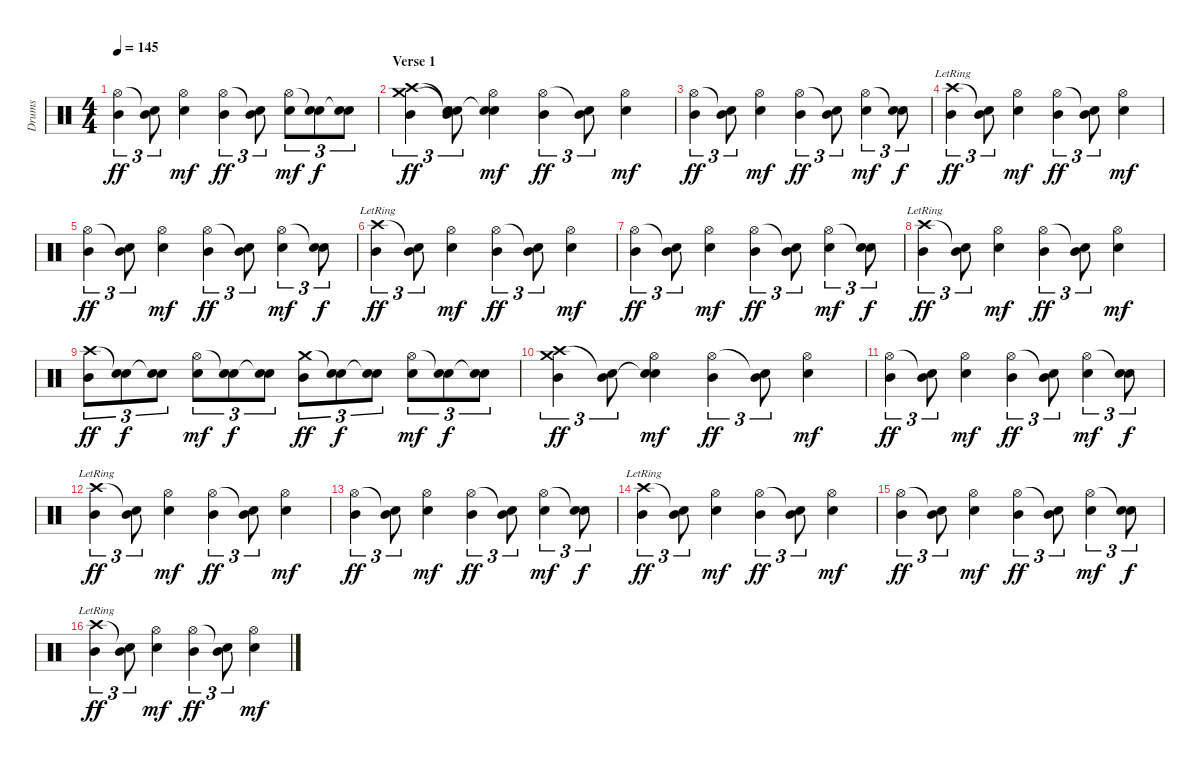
\track ("Drums" "Drums") {instrument percussion}
\staff {score}
\articulation defaults
\ts (4 4)
\tempo 145
\clef neutral
\ks c
("Hi-Hat (open)" "Mid Tom (hit)").4{tu (3 2) dy ff} ("Snare (hit)"{t} "Mid Tom (hit)").8{tu (3 2)} ("Hi-Hat (open)" "Electric Snare (hit)").4{dy mf} ("Hi-Hat (open)" "Mid Tom (hit)").4{tu (3 2) dy ff} ("Snare (hit)"{t} "Mid Tom (hit)").8{tu (3 2)} ("Hi-Hat (open)" "Electric Snare (hit)").8{tu (3 2) dy mf} ("Snare (hit)"{t} "Electric Snare (hit)").8{tu (3 2) dy f} ("Snare (hit)"{t} "Electric Snare (hit)").8{tu (3 2)} |
\section ("" "Verse 1")
("Crash high (hit)" "Crash medium (hit)" "Mid Tom (hit)").4{tu (3 2) dy ff} ("Snare (hit)"{t} "Snare (hit)"{t} "Mid Tom (hit)").8{tu (3 2)} ("Hi-Hat (open)" "Snare (hit)"{t} "Electric Snare (hit)").4{dy mf} ("Hi-Hat (open)" "Mid Tom (hit)").4{tu (3 2) dy ff} ("Snare (hit)"{t} "Mid Tom (hit)").8{tu (3 2)} ("Hi-Hat (open)" "Electric Snare (hit)").4{dy mf} |
("Hi-Hat (open)" "Mid Tom (hit)").4{tu (3 2) dy ff} ("Snare (hit)"{t} "Mid Tom (hit)").8{tu (3 2)} ("Hi-Hat (open)" "Electric Snare (hit)").4{dy mf} ("Hi-Hat (open)" "Mid Tom (hit)").4{tu (3 2) dy ff} ("Snare (hit)"{t} "Mid Tom (hit)").8{tu (3 2)} ("Hi-Hat (open)" "Electric Snare (hit)").4{tu (3 2) dy mf} ("Snare (hit)"{t} "Electric Snare (hit)").8{tu (3 2) dy f} |
("Crash high (hit)"{lr} "Mid Tom (hit)").4{tu (3 2) dy ff} ("Snare (hit)"{t} "Mid Tom (hit)").8{tu (3 2)} ("Hi-Hat (open)" "Electric Snare (hit)").4{dy mf} ("Hi-Hat (open)" "Mid Tom (hit)").4{tu (3 2) dy ff} ("Snare (hit)"{t} "Mid Tom (hit)").8{tu (3 2)} ("Hi-Hat (open)" "Electric Snare (hit)").4{dy mf} |
("Hi-Hat (open)" "Mid Tom (hit)").4{tu (3 2) dy ff} ("Snare (hit)"{t} "Mid Tom (hit)").8{tu (3 2)} ("Hi-Hat (open)" "Electric Snare (hit)").4{dy mf} ("Hi-Hat (open)" "Mid Tom (hit)").4{tu (3 2) dy ff} ("Snare (hit)"{t} "Mid Tom (hit)").8{tu (3 2)} ("Hi-Hat (open)" "Electric Snare (hit)").4{tu (3 2) dy mf} ("Snare (hit)"{t} "Electric Snare (hit)").8{tu (3 2) dy f} |
("Crash high (hit)"{lr} "Mid Tom (hit)").4{tu (3 2) dy ff} ("Snare (hit)"{t} "Mid Tom (hit)").8{tu (3 2)} ("Hi-Hat (open)" "Electric Snare (hit)").4{dy mf} ("Hi-Hat (open)" "Mid Tom (hit)").4{tu (3 2) dy ff} ("Snare (hit)"{t} "Mid Tom (hit)").8{tu (3 2)} ("Hi-Hat (open)" "Electric Snare (hit)").4{dy mf} |
("Hi-Hat (open)" "Mid Tom (hit)").4{tu (3 2) dy ff} ("Snare (hit)"{t} "Mid Tom (hit)").8{tu (3 2)} ("Hi-Hat (open)" "Electric Snare (hit)").4{dy mf} ("Hi-Hat (open)" "Mid Tom (hit)").4{tu (3 2) dy ff} ("Snare (hit)"{t} "Mid Tom (hit)").8{tu (3 2)} ("Hi-Hat (open)" "Electric Snare (hit)").4{tu (3 2) dy mf} ("Snare (hit)"{t} "Electric Snare (hit)").8{tu (3 2) dy f} |
("Crash high (hit)"{lr} "Mid Tom (hit)").4{tu (3 2) dy ff} ("Snare (hit)"{t} "Mid Tom (hit)").8{tu (3 2)} ("Hi-Hat (open)" "Electric Snare (hit)").4{dy mf} ("Hi-Hat (open)" "Mid Tom (hit)").4{tu (3 2) dy ff} ("Snare (hit)"{t} "Mid Tom (hit)").8{tu (3 2)} ("Hi-Hat (open)" "Electric Snare (hit)").4{dy mf} |
("Crash high (hit)" "Mid Tom (hit)").8{tu (3 2) dy ff} ("Snare (hit)"{t} "Electric Snare (hit)").8{tu (3 2) dy f} ("Snare (hit)"{t} "Electric Snare (hit)").8{tu (3 2)} ("Hi-Hat (open)" "Electric Snare (hit)").8{tu (3 2) dy mf} ("Snare (hit)"{t} "Electric Snare (hit)").8{tu (3 2) dy f} ("Snare (hit)"{t} "Electric Snare (hit)").8{tu (3 2)} ("Crash medium (hit)" "Mid Tom (hit)").8{tu (3 2) dy ff} ("Snare (hit)"{t} "Electric Snare (hit)").8{tu (3 2) dy f} ("Snare (hit)"{t} "Electric Snare (hit)").8{tu (3 2)} ("Hi-Hat (open)" "Electric Snare (hit)").8{tu (3 2) dy mf} ("Snare (hit)"{t} "Electric Snare (hit)").8{tu (3 2) dy f} ("Snare (hit)"{t} "Electric Snare (hit)").8{tu (3 2)} |
("Crash high (hit)" "Crash medium (hit)" "Mid Tom (hit)").4{tu (3 2) dy ff} ("Snare (hit)"{t} "Mid Tom (hit)").8{tu (3 2)} ("Hi-Hat (open)" "Snare (hit)"{t} "Electric Snare (hit)").4{dy mf} ("Hi-Hat (open)" "Mid Tom (hit)").4{tu (3 2) dy ff} ("Snare (hit)"{t} "Mid Tom (hit)").8{tu (3 2)} ("Hi-Hat (open)" "Electric Snare (hit)").4{dy mf} |
("Hi-Hat (open)" "Mid Tom (hit)").4{tu (3 2) dy ff} ("Snare (hit)"{t} "Mid Tom (hit)").8{tu (3 2)} ("Hi-Hat (open)" "Electric Snare (hit)").4{dy mf} ("Hi-Hat (open)" "Mid Tom (hit)").4{tu (3 2) dy ff} ("Snare (hit)"{t} "Mid Tom (hit)").8{tu (3 2)} ("Hi-Hat (open)" "Electric Snare (hit)").4{tu (3 2) dy mf} ("Snare (hit)"{t} "Electric Snare (hit)").8{tu (3 2) dy f} |
("Crash high (hit)"{lr} "Mid Tom (hit)").4{tu (3 2) dy ff} ("Snare (hit)"{t} "Mid Tom (hit)").8{tu (3 2)} ("Hi-Hat (open)" "Electric Snare (hit)").4{dy mf} ("Hi-Hat (open)" "Mid Tom (hit)").4{tu (3 2) dy ff} ("Snare (hit)"{t} "Mid Tom (hit)").8{tu (3 2)} ("Hi-Hat (open)" "Electric Snare (hit)").4{dy mf} |
("Hi-Hat (open)" "Mid Tom (hit)").4{tu (3 2) dy ff} ("Snare (hit)"{t} "Mid Tom (hit)").8{tu (3 2)} ("Hi-Hat (open)" "Electric Snare (hit)").4{dy mf} ("Hi-Hat (open)" "Mid Tom (hit)").4{tu (3 2) dy ff} ("Snare (hit)"{t} "Mid Tom (hit)").8{tu (3 2)} ("Hi-Hat (open)" "Electric Snare (hit)").4{tu (3 2) dy mf} ("Snare (hit)"{t} "Electric Snare (hit)").8{tu (3 2) dy f} |
("Crash high (hit)"{lr} "Mid Tom (hit)").4{tu (3 2) dy ff} ("Snare (hit)"{t} "Mid Tom (hit)").8{tu (3 2)} ("Hi-Hat (open)" "Electric Snare (hit)").4{dy mf} ("Hi-Hat (open)" "Mid Tom (hit)").4{tu (3 2) dy ff} ("Snare (hit)"{t} "Mid Tom (hit)").8{tu (3 2)} ("Hi-Hat (open)" "Electric Snare (hit)").4{dy mf} |
("Hi-Hat (open)" "Mid Tom (hit)").4{tu (3 2) dy ff} ("Snare (hit)"{t} "Mid Tom (hit)").8{tu (3 2)} ("Hi-Hat (open)" "Electric Snare (hit)").4{dy mf} ("Hi-Hat (open)" "Mid Tom (hit)").4{tu (3 2) dy ff} ("Snare (hit)"{t} "Mid Tom (hit)").8{tu (3 2)} ("Hi-Hat (open)" "Electric Snare (hit)").4{tu (3 2) dy mf} ("Snare (hit)"{t} "Electric Snare (hit)").8{tu (3 2) dy f} |
("Crash high (hit)"{lr} "Mid Tom (hit)").4{tu (3 2) dy ff} ("Snare (hit)"{t} "Mid Tom (hit)").8{tu (3 2)} ("Hi-Hat (open)" "Electric Snare (hit)").4{dy mf} ("Hi-Hat (open)" "Mid Tom (hit)").4{tu (3 2) dy ff} ("Snare (hit)"{t} "Mid Tom (hit)").8{tu (3 2)} ("Hi-Hat (open)" "Electric Snare (hit)").4{dy mf}
